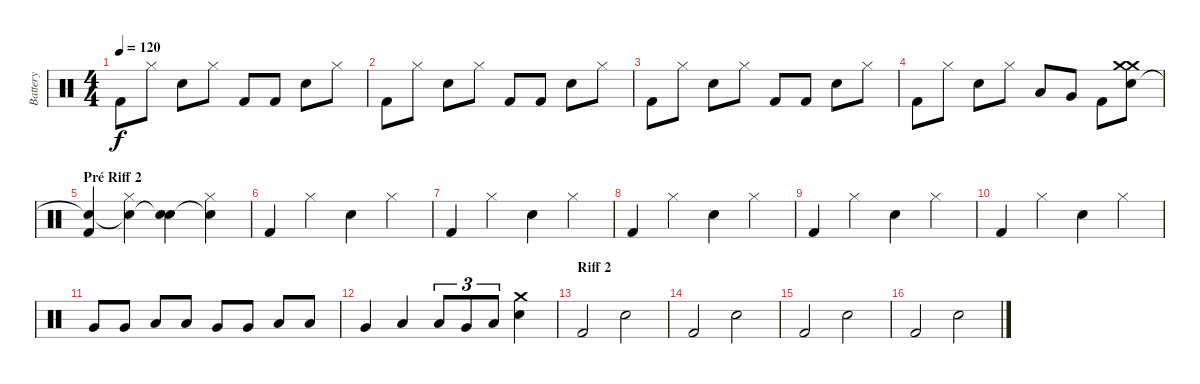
\track ("Battery" "Battery") {instrument percussion}
\staff {score}
\articulation defaults
\ts (4 4)
\tempo 120
\clef neutral
\ks c "Kick (hit) 2".8{dy f} "Hi-Hat (closed)".8 "Snare (hit) 2".8 "Hi-Hat (closed)".8 "Kick (hit) 2".8 "Kick (hit) 2".8 "Snare (hit) 2".8 "Hi-Hat (closed)".8
|
"Kick (hit) 2".8 "Hi-Hat (closed)".8 "Snare (hit) 2".8 "Hi-Hat (closed)".8 "Kick (hit) 2".8 "Kick (hit) 2".8 "Snare (hit) 2".8 "Hi-Hat (closed)".8 |
"Kick (hit) 2".8 "Hi-Hat (closed)".8 "Snare (hit) 2".8 "Hi-Hat (closed)".8 "Kick (hit) 2".8 "Kick (hit) 2".8 "Snare (hit) 2".8 "Hi-Hat (closed)".8 |
"Kick (hit) 2".8 "Hi-Hat (closed)".8 "Snare (hit) 2".8 "Hi-Hat (closed)".8 "Low Tom (hit)".8 "Very Low Tom (hit)".8 "Kick (hit) 2".8 ("Crash medium (hit)" "Snare (hit) 2" "Crash medium (hit)").8 |
\section ("" "Pré Riff 2")
("Kick (hit) 2" "Snare (hit)"{t}).4 ("Hi-Hat (closed)" "Snare (hit)"{t}).4 ("Snare (hit) 2" "Snare (hit)"{t}).4 ("Hi-Hat (closed)" "Snare (hit)"{t}).4 |
"Kick (hit) 2".4 "Hi-Hat (closed)".4 "Snare (hit) 2".4 "Hi-Hat (closed)".4 |
"Kick (hit) 2".4 "Hi-Hat (closed)".4 "Snare (hit) 2".4 "Hi-Hat (closed)".4 |
"Kick (hit) 2".4 "Hi-Hat (closed)".4 "Snare (hit) 2".4 "Hi-Hat (closed)".4 |
"Kick (hit) 2".4 "Hi-Hat (closed)".4 "Snare (hit) 2".4 "Hi-Hat (closed)".4 |
"Kick (hit) 2".4 "Hi-Hat (closed)".4 "Snare (hit) 2".4 "Hi-Hat (closed)".4 |
"Very Low Tom (hit)".8 "Very Low Tom (hit)".8 "Low Floor Tom (hit)".8 "Low Floor Tom (hit)".8 "Very Low Tom (hit)".8 "Very Low Tom (hit)".8 "Low Floor Tom (hit)".8 "Low Floor Tom (hit)".8 |
"Very Low Tom (hit)".4 "Low Floor Tom (hit)".4 "Low Tom (hit)".8{tu (3 2)} "Very Low Tom (hit)".8{tu (3 2)} "Low Floor Tom (hit)".8{tu (3 2)} ("Crash medium (hit)" "Snare (hit) 2").4 |
\section ("" "Riff 2")
"Kick (hit) 2".2 "Snare (hit) 2".2 |
"Kick (hit) 2".2 "Snare (hit) 2".2 |
"Kick (hit) 2".2 "Snare (hit) 2".2 |
"Kick (hit) 2".2 "Snare (hit) 2".2
